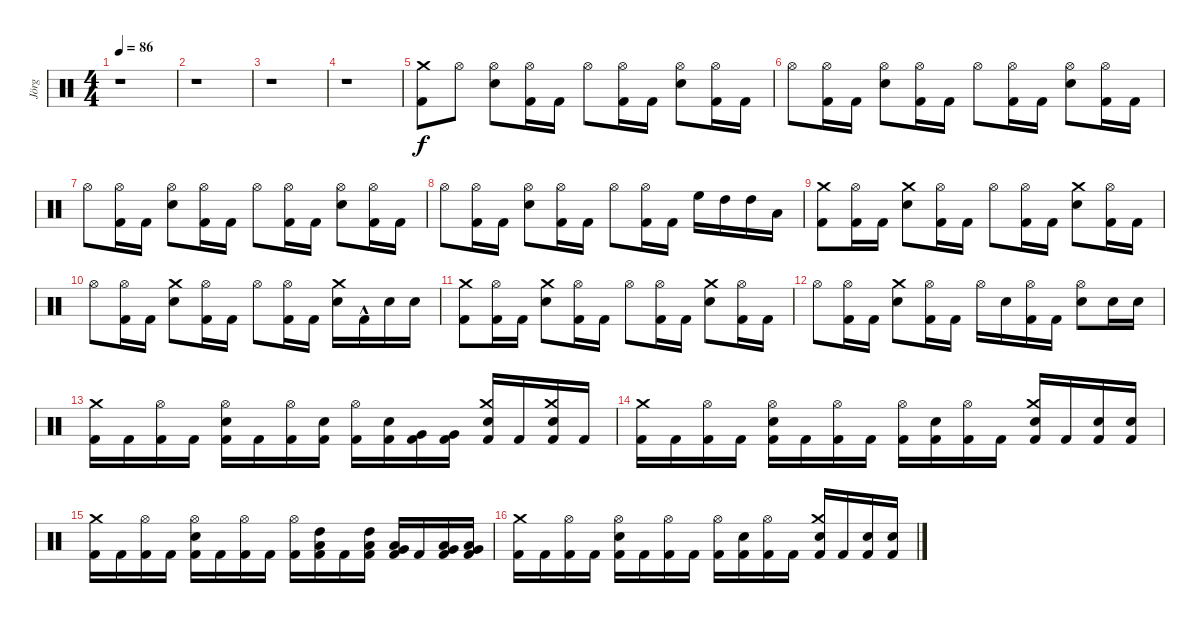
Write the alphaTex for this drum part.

\track ("Jörg" "Jörg") {instrument percussion}
\staff {score}
\articulation defaults
\ts (4 4)
\tempo 86
\clef neutral
\ks c
r.1{dy f} |
r.1 |
r.1 |
r.1 |
("Kick (hit) 2" "Crash medium (hit)").8 "Hi-Hat (open)".8 ("Snare (hit) 2" "Hi-Hat (open)").8 ("Kick (hit) 2" "Hi-Hat (open)").16 "Kick (hit) 2".16 "Hi-Hat (open)".8 ("Kick (hit) 2" "Hi-Hat (open)").16 "Kick (hit) 2".16 ("Snare (hit) 2" "Hi-Hat (open)").8 ("Kick (hit) 2" "Hi-Hat (open)").16 "Kick (hit) 2".16 |
"Hi-Hat (open)".8 ("Kick (hit) 2" "Hi-Hat (open)").16 "Kick (hit) 2".16 ("Snare (hit) 2" "Hi-Hat (open)").8 ("Kick (hit) 2" "Hi-Hat (open)").16 "Kick (hit) 2".16 "Hi-Hat (open)".8 ("Kick (hit) 2" "Hi-Hat (open)").16 "Kick (hit) 2".16 ("Snare (hit) 2" "Hi-Hat (open)").8 ("Kick (hit) 2" "Hi-Hat (open)").16 "Kick (hit) 2".16 |
"Hi-Hat (open)".8 ("Kick (hit) 2" "Hi-Hat (open)").16 "Kick (hit) 2".16 ("Snare (hit) 2" "Hi-Hat (open)").8 ("Kick (hit) 2" "Hi-Hat (open)").16 "Kick (hit) 2".16 "Hi-Hat (open)".8 ("Kick (hit) 2" "Hi-Hat (open)").16 "Kick (hit) 2".16 ("Snare (hit) 2" "Hi-Hat (open)").8 ("Kick (hit) 2" "Hi-Hat (open)").16 "Kick (hit) 2".16 |
"Hi-Hat (open)".8 ("Kick (hit) 2" "Hi-Hat (open)").16 "Kick (hit) 2".16 ("Snare (hit) 2" "Hi-Hat (open)").8 ("Kick (hit) 2" "Hi-Hat (open)").16 "Kick (hit) 2".16 "Hi-Hat (open)".8 ("Kick (hit) 2" "Hi-Hat (open)").16 "Kick (hit) 2".16 "High Floor Tom (hit)".16 "High Tom (hit)".16 "High Tom (hit)".16 "Low Tom (hit)".16 |
("Kick (hit) 2" "Crash medium (hit)").8 ("Kick (hit) 2" "Hi-Hat (open)").16 "Kick (hit) 2".16 ("Snare (hit) 2" "Crash medium (hit)").8 ("Kick (hit) 2" "Hi-Hat (open)").16 "Kick (hit) 2".16 "Hi-Hat (open)".8 ("Kick (hit) 2" "Hi-Hat (open)").16 "Kick (hit) 2".16 ("Snare (hit) 2" "Crash medium (hit)").8 ("Kick (hit) 2" "Hi-Hat (open)").16 "Kick (hit) 2".16 |
"Hi-Hat (open)".8 ("Kick (hit) 2" "Hi-Hat (open)").16 "Kick (hit) 2".16 ("Snare (hit) 2" "Crash medium (hit)").8 ("Kick (hit) 2" "Hi-Hat (open)").16 "Kick (hit) 2".16 "Hi-Hat (open)".8 ("Kick (hit) 2" "Hi-Hat (open)").16 "Kick (hit) 2".16 ("Snare (hit) 2" "Crash medium (hit)").16 "Kick (hit) 2"{hac}.16 "Snare (hit) 2".16 "Snare (hit) 2".16 |
("Kick (hit) 2" "Crash medium (hit)").8 ("Kick (hit) 2" "Hi-Hat (open)").16 "Kick (hit) 2".16 ("Snare (hit) 2" "Crash medium (hit)").8 ("Kick (hit) 2" "Hi-Hat (open)").16 "Kick (hit) 2".16 "Hi-Hat (open)".8 ("Kick (hit) 2" "Hi-Hat (open)").16 "Kick (hit) 2".16 ("Snare (hit) 2" "Crash medium (hit)").8 ("Kick (hit) 2" "Hi-Hat (open)").16 "Kick (hit) 2".16 |
"Hi-Hat (open)".8 ("Kick (hit) 2" "Hi-Hat (open)").16 "Kick (hit) 2".16 ("Snare (hit) 2" "Crash medium (hit)").8 ("Kick (hit) 2" "Hi-Hat (open)").16 "Kick (hit) 2".16 "Hi-Hat (open)".16 "Snare (hit) 2".16 ("Kick (hit) 2" "Hi-Hat (open)").16 "Kick (hit) 2".16 ("Snare (hit) 2" "Hi-Hat (open)").8 "Snare (hit) 2".16 "Snare (hit) 2".16 |
("Crash medium (hit)" "Kick (hit) 2").16 "Kick (hit) 2".16 ("Hi-Hat (open)" "Kick (hit) 2").16 "Kick (hit) 2".16 ("Hi-Hat (open)" "Snare (hit) 2" "Kick (hit) 2").16 "Kick (hit) 2".16 ("Hi-Hat (open)" "Kick (hit) 2").16 ("Snare (hit) 2" "Kick (hit) 2").16 ("Hi-Hat (open)" "Kick (hit) 2").16 ("Snare (hit) 2" "Kick (hit) 2").16 ("Very Low Tom (hit)" "Kick (hit) 2").16 ("Very Low Tom (hit)" "Kick (hit) 2").16 ("Snare (hit) 2" "Crash medium (hit)" "Kick (hit) 2").16 "Kick (hit) 2".16 ("Snare (hit) 2" "Crash medium (hit)" "Kick (hit) 2").16 "Kick (hit) 2".16 |
("Crash medium (hit)" "Kick (hit) 2").16 "Kick (hit) 2".16 ("Hi-Hat (open)" "Kick (hit) 2").16 "Kick (hit) 2".16 ("Snare (hit) 2" "Hi-Hat (open)" "Kick (hit) 2").16 "Kick (hit) 2".16 ("Hi-Hat (open)" "Kick (hit) 2").16 "Kick (hit) 2".16 ("Hi-Hat (open)" "Kick (hit) 2").16 ("Snare (hit) 2" "Kick (hit) 2").16 ("Hi-Hat (open)" "Kick (hit) 2").16 "Kick (hit) 2".16 ("Snare (hit) 2" "Crash medium (hit)" "Kick (hit) 2").16 "Kick (hit) 2".16 ("Snare (hit) 2" "Kick (hit) 2").16 ("Snare (hit) 2" "Kick (hit) 2").16 |
("Crash medium (hit)" "Kick (hit) 2").16 "Kick (hit) 2".16 ("Hi-Hat (open)" "Kick (hit) 2").16 "Kick (hit) 2".16 ("Snare (hit) 2" "Hi-Hat (open)" "Kick (hit) 2").16 "Kick (hit) 2".16 ("Hi-Hat (open)" "Kick (hit) 2").16 "Kick (hit) 2".16 ("Hi-Hat (open)" "Kick (hit) 2").16 ("Low Tom (hit)" "High Tom (hit)" "Kick (hit) 2").16 "Kick (hit) 2".16 ("Low Tom (hit)" "High Tom (hit)" "Kick (hit) 2").16 ("Low Tom (hit)" "Very Low Tom (hit)" "Kick (hit) 2").16 "Kick (hit) 2".16 ("Low Tom (hit)" "Very Low Tom (hit)" "Kick (hit) 2").16 ("Low Tom (hit)" "Very Low Tom (hit)" "Kick (hit) 2").16 |
("Crash medium (hit)" "Kick (hit) 2").16 "Kick (hit) 2".16 ("Hi-Hat (open)" "Kick (hit) 2").16 "Kick (hit) 2".16 ("Snare (hit) 2" "Hi-Hat (open)" "Kick (hit) 2").16 "Kick (hit) 2".16 ("Hi-Hat (open)" "Kick (hit) 2").16 "Kick (hit) 2".16 ("Hi-Hat (open)" "Kick (hit) 2").16 ("Snare (hit) 2" "Kick (hit) 2").16 ("Hi-Hat (open)" "Kick (hit) 2").16 "Kick (hit) 2".16 ("Snare (hit) 2" "Crash medium (hit)" "Kick (hit) 2").16 "Kick (hit) 2".16 ("Snare (hit) 2" "Kick (hit) 2").16 ("Snare (hit) 2" "Kick (hit) 2").16
